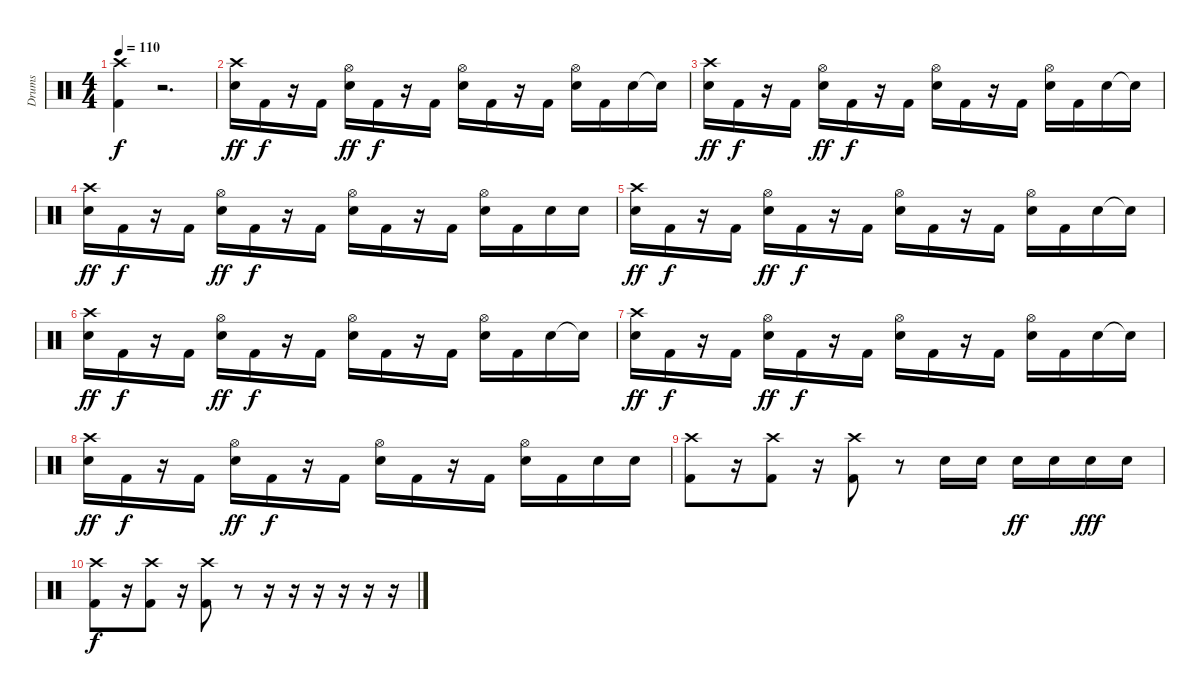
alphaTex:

\track ("Drums" "Drums") {instrument percussion}
\staff {score}
\articulation defaults
\ts (4 4)
\tempo 110
\clef neutral
\ks c
("Crash high (hit)" "Kick (hit) 2").4{dy f} r.2{d} |
("Crash high (hit)" "Electric Snare (hit)").16{dy ff} "Kick (hit) 2".16{dy f} r.16 "Kick (hit) 2".16 ("Hi-Hat (open)" "Electric Snare (hit)").16{dy ff} "Kick (hit) 2".16{dy f} r.16 "Kick (hit) 2".16 ("Hi-Hat (open)" "Electric Snare (hit)").16 "Kick (hit) 2".16 r.16 "Kick (hit) 2".16 ("Hi-Hat (open)" "Electric Snare (hit)").16 "Kick (hit) 2".16 "Electric Snare (hit)".16 "Electric Snare (hit)"{t}.16 |
("Crash high (hit)" "Electric Snare (hit)").16{dy ff} "Kick (hit) 2".16{dy f} r.16 "Kick (hit) 2".16 ("Hi-Hat (open)" "Electric Snare (hit)").16{dy ff} "Kick (hit) 2".16{dy f} r.16 "Kick (hit) 2".16 ("Hi-Hat (open)" "Electric Snare (hit)").16 "Kick (hit) 2".16 r.16 "Kick (hit) 2".16 ("Hi-Hat (open)" "Electric Snare (hit)").16 "Kick (hit) 2".16 "Electric Snare (hit)".16 "Electric Snare (hit)"{t}.16 |
("Crash high (hit)" "Electric Snare (hit)").16{dy ff} "Kick (hit) 2".16{dy f} r.16 "Kick (hit) 2".16 ("Hi-Hat (open)" "Electric Snare (hit)").16{dy ff} "Kick (hit) 2".16{dy f} r.16 "Kick (hit) 2".16 ("Hi-Hat (open)" "Electric Snare (hit)").16 "Kick (hit) 2".16 r.16 "Kick (hit) 2".16 ("Hi-Hat (open)" "Electric Snare (hit)").16 "Kick (hit) 2".16 "Electric Snare (hit)".16 "Electric Snare (hit)".16 |
("Crash high (hit)" "Electric Snare (hit)").16{dy ff} "Kick (hit) 2".16{dy f} r.16 "Kick (hit) 2".16 ("Hi-Hat (open)" "Electric Snare (hit)").16{dy ff} "Kick (hit) 2".16{dy f} r.16 "Kick (hit) 2".16 ("Hi-Hat (open)" "Electric Snare (hit)").16 "Kick (hit) 2".16 r.16 "Kick (hit) 2".16 ("Hi-Hat (open)" "Electric Snare (hit)").16 "Kick (hit) 2".16 "Electric Snare (hit)".16 "Electric Snare (hit)"{t}.16 |
("Crash high (hit)" "Electric Snare (hit)").16{dy ff} "Kick (hit) 2".16{dy f} r.16 "Kick (hit) 2".16 ("Hi-Hat (open)" "Electric Snare (hit)").16{dy ff} "Kick (hit) 2".16{dy f} r.16 "Kick (hit) 2".16 ("Hi-Hat (open)" "Electric Snare (hit)").16 "Kick (hit) 2".16 r.16 "Kick (hit) 2".16 ("Hi-Hat (open)" "Electric Snare (hit)").16 "Kick (hit) 2".16 "Electric Snare (hit)".16 "Electric Snare (hit)"{t}.16 |
("Crash high (hit)" "Electric Snare (hit)").16{dy ff} "Kick (hit) 2".16{dy f} r.16 "Kick (hit) 2".16 ("Hi-Hat (open)" "Electric Snare (hit)").16{dy ff} "Kick (hit) 2".16{dy f} r.16 "Kick (hit) 2".16 ("Hi-Hat (open)" "Electric Snare (hit)").16 "Kick (hit) 2".16 r.16 "Kick (hit) 2".16 ("Hi-Hat (open)" "Electric Snare (hit)").16 "Kick (hit) 2".16 "Electric Snare (hit)".16 "Electric Snare (hit)"{t}.16 |
("Crash high (hit)" "Electric Snare (hit)").16{dy ff} "Kick (hit) 2".16{dy f} r.16 "Kick (hit) 2".16 ("Hi-Hat (open)" "Electric Snare (hit)").16{dy ff} "Kick (hit) 2".16{dy f} r.16 "Kick (hit) 2".16 ("Hi-Hat (open)" "Electric Snare (hit)").16 "Kick (hit) 2".16 r.16 "Kick (hit) 2".16 ("Hi-Hat (open)" "Electric Snare (hit)").16 "Kick (hit) 2".16 "Electric Snare (hit)".16 "Electric Snare (hit)".16 |
("Crash high (hit)" "Kick (hit) 2").8 r.16 ("Crash high (hit)" "Kick (hit) 2").8 r.16 ("Crash high (hit)" "Kick (hit) 2").8 r.8 "Electric Snare (hit)".16 "Electric Snare (hit)".16 "Electric Snare (hit)".16{dy ff} "Electric Snare (hit)".16 "Electric Snare (hit)".16{dy fff} "Electric Snare (hit)".16 |
("Crash high (hit)" "Kick (hit) 2").8{dy f} r.16 ("Crash high (hit)" "Kick (hit) 2").8 r.16 ("Crash high (hit)" "Kick (hit) 2").8 r.8 r.16 r.16 r.16 r.16 r.16 r.16
